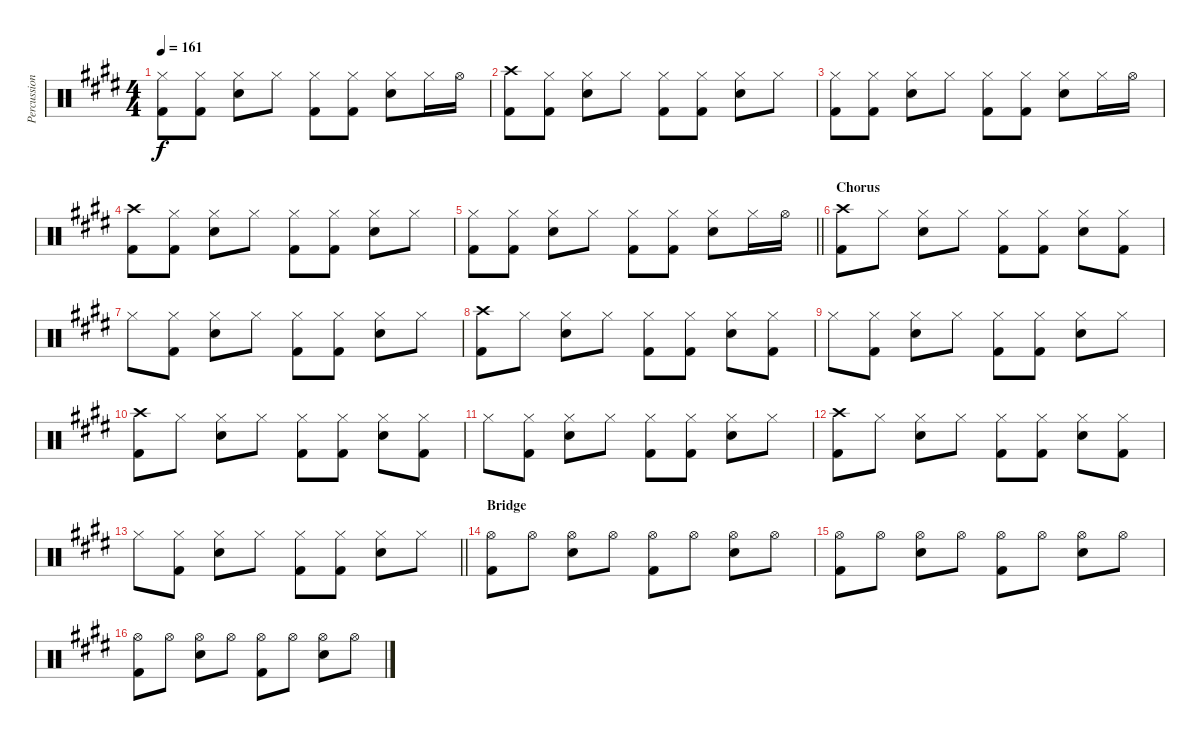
\track ("Percussion" "Percussion") {instrument percussion}
\staff {score}
\articulation defaults
\ts (4 4)
\tempo 161
\clef neutral
\ks e
("Hi-Hat (closed)" "Kick (hit) 2").8{dy f} ("Hi-Hat (closed)" "Kick (hit) 2").8 ("Hi-Hat (closed)" "Snare (hit) 2").8 "Hi-Hat (closed)".8 ("Hi-Hat (closed)" "Kick (hit) 2").8 ("Hi-Hat (closed)" "Kick (hit) 2").8 ("Hi-Hat (closed)" "Snare (hit) 2").8 "Hi-Hat (closed)".16 "Hi-Hat (open)".16 |
("Crash high (hit)" "Kick (hit) 2").8 ("Hi-Hat (closed)" "Kick (hit) 2").8 ("Hi-Hat (closed)" "Snare (hit) 2").8 "Hi-Hat (closed)".8 ("Hi-Hat (closed)" "Kick (hit) 2").8 ("Hi-Hat (closed)" "Kick (hit) 2").8 ("Hi-Hat (closed)" "Snare (hit) 2").8 "Hi-Hat (closed)".8 |
("Hi-Hat (closed)" "Kick (hit) 2").8 ("Hi-Hat (closed)" "Kick (hit) 2").8 ("Hi-Hat (closed)" "Snare (hit) 2").8 "Hi-Hat (closed)".8 ("Hi-Hat (closed)" "Kick (hit) 2").8 ("Hi-Hat (closed)" "Kick (hit) 2").8 ("Hi-Hat (closed)" "Snare (hit) 2").8 "Hi-Hat (closed)".16 "Hi-Hat (open)".16 |
("Crash high (hit)" "Kick (hit) 2").8 ("Hi-Hat (closed)" "Kick (hit) 2").8 ("Hi-Hat (closed)" "Snare (hit) 2").8 "Hi-Hat (closed)".8 ("Hi-Hat (closed)" "Kick (hit) 2").8 ("Hi-Hat (closed)" "Kick (hit) 2").8 ("Hi-Hat (closed)" "Snare (hit) 2").8 "Hi-Hat (closed)".8 |
\barLineRight lightlight
("Hi-Hat (closed)" "Kick (hit) 2").8 ("Hi-Hat (closed)" "Kick (hit) 2").8 ("Hi-Hat (closed)" "Snare (hit) 2").8 "Hi-Hat (closed)".8 ("Hi-Hat (closed)" "Kick (hit) 2").8 ("Hi-Hat (closed)" "Kick (hit) 2").8 ("Hi-Hat (closed)" "Snare (hit) 2").8 "Hi-Hat (closed)".16 "Hi-Hat (open)".16 |
\section ("" "Chorus")
("Crash high (hit)" "Kick (hit) 2").8 "Hi-Hat (closed)".8 ("Hi-Hat (closed)" "Snare (hit) 2").8 "Hi-Hat (closed)".8 ("Hi-Hat (closed)" "Kick (hit) 2").8 ("Hi-Hat (closed)" "Kick (hit) 2").8 ("Hi-Hat (closed)" "Snare (hit) 2").8 ("Hi-Hat (closed)" "Kick (hit) 2").8 |
"Hi-Hat (closed)".8 ("Hi-Hat (closed)" "Kick (hit) 2").8 ("Hi-Hat (closed)" "Snare (hit) 2").8 "Hi-Hat (closed)".8 ("Hi-Hat (closed)" "Kick (hit) 2").8 ("Hi-Hat (closed)" "Kick (hit) 2").8 ("Hi-Hat (closed)" "Snare (hit) 2").8 "Hi-Hat (closed)".8 |
("Crash high (hit)" "Kick (hit) 2").8 "Hi-Hat (closed)".8 ("Hi-Hat (closed)" "Snare (hit) 2").8 "Hi-Hat (closed)".8 ("Hi-Hat (closed)" "Kick (hit) 2").8 ("Hi-Hat (closed)" "Kick (hit) 2").8 ("Hi-Hat (closed)" "Snare (hit) 2").8 ("Hi-Hat (closed)" "Kick (hit) 2").8 |
"Hi-Hat (closed)".8 ("Hi-Hat (closed)" "Kick (hit) 2").8 ("Hi-Hat (closed)" "Snare (hit) 2").8 "Hi-Hat (closed)".8 ("Hi-Hat (closed)" "Kick (hit) 2").8 ("Hi-Hat (closed)" "Kick (hit) 2").8 ("Hi-Hat (closed)" "Snare (hit) 2").8 "Hi-Hat (closed)".8 |
("Crash high (hit)" "Kick (hit) 2").8 "Hi-Hat (closed)".8 ("Hi-Hat (closed)" "Snare (hit) 2").8 "Hi-Hat (closed)".8 ("Hi-Hat (closed)" "Kick (hit) 2").8 ("Hi-Hat (closed)" "Kick (hit) 2").8 ("Hi-Hat (closed)" "Snare (hit) 2").8 ("Hi-Hat (closed)" "Kick (hit) 2").8 |
"Hi-Hat (closed)".8 ("Hi-Hat (closed)" "Kick (hit) 2").8 ("Hi-Hat (closed)" "Snare (hit) 2").8 "Hi-Hat (closed)".8 ("Hi-Hat (closed)" "Kick (hit) 2").8 ("Hi-Hat (closed)" "Kick (hit) 2").8 ("Hi-Hat (closed)" "Snare (hit) 2").8 "Hi-Hat (closed)".8 |
("Crash high (hit)" "Kick (hit) 2").8 "Hi-Hat (closed)".8 ("Hi-Hat (closed)" "Snare (hit) 2").8 "Hi-Hat (closed)".8 ("Hi-Hat (closed)" "Kick (hit) 2").8 ("Hi-Hat (closed)" "Kick (hit) 2").8 ("Hi-Hat (closed)" "Snare (hit) 2").8 ("Hi-Hat (closed)" "Kick (hit) 2").8 |
\barLineRight lightlight "Hi-Hat (closed)".8
("Hi-Hat (closed)" "Kick (hit) 2").8 ("Hi-Hat (closed)" "Snare (hit) 2").8 "Hi-Hat (closed)".8 ("Hi-Hat (closed)" "Kick (hit) 2").8 ("Hi-Hat (closed)" "Kick (hit) 2").8 ("Hi-Hat (closed)" "Snare (hit) 2").8 "Hi-Hat (closed)".8 |
\section ("" "Bridge")
("Hi-Hat (open)" "Kick (hit) 2").8 "Hi-Hat (open)".8 ("Hi-Hat (open)" "Snare (hit) 2").8 "Hi-Hat (open)".8 ("Hi-Hat (open)" "Kick (hit) 2").8 "Hi-Hat (open)".8 ("Hi-Hat (open)" "Snare (hit) 2").8 "Hi-Hat (open)".8 |
("Hi-Hat (open)" "Kick (hit) 2").8 "Hi-Hat (open)".8 ("Hi-Hat (open)" "Snare (hit) 2").8 "Hi-Hat (open)".8 ("Hi-Hat (open)" "Kick (hit) 2").8 "Hi-Hat (open)".8 ("Hi-Hat (open)" "Snare (hit) 2").8 "Hi-Hat (open)".8 |
("Hi-Hat (open)" "Kick (hit) 2").8 "Hi-Hat (open)".8 ("Hi-Hat (open)" "Snare (hit) 2").8 "Hi-Hat (open)".8 ("Hi-Hat (open)" "Kick (hit) 2").8 "Hi-Hat (open)".8 ("Hi-Hat (open)" "Snare (hit) 2").8 "Hi-Hat (open)".8
